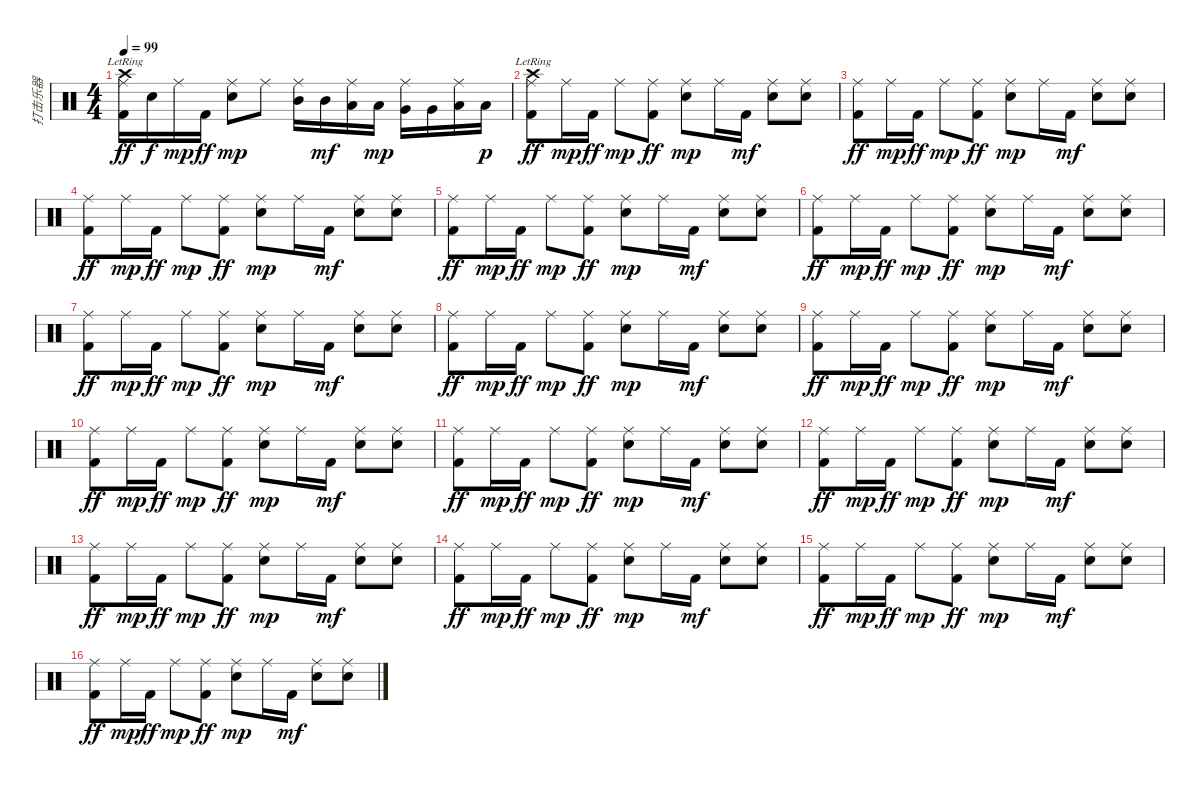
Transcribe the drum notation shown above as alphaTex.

\track ("打击乐器" "打击乐器") {instrument percussion}
\staff {score}
\articulation defaults
\ts (4 4)
\tempo 99
\clef neutral
\ks c
("Ride (middle)" "Crash high (hit)"{lr} "Kick (hit) 2").16{dy ff} "Snare (hit) 2".16{dy f} "Ride (middle)".16{dy mp} "Kick (hit) 2".16{dy ff} ("Ride (middle)" "Snare (hit) 2").8{dy mp} "Ride (middle)".8 ("Ride (middle)" "Mid Tom (hit)").16 "Mid Tom (hit)".16{dy mf} ("Ride (middle)" "Low Tom (hit)").16 "Low Tom (hit)".16{dy mp} ("Ride (middle)" "Very Low Tom (hit)").16 "Very Low Tom (hit)".16 ("Ride (middle)" "Low Floor Tom (hit)").16 "Low Floor Tom (hit)".16{dy p} |
("Ride (middle)" "Crash high (hit)"{lr} "Kick (hit) 2").8{dy ff} "Ride (middle)".16{dy mp} "Kick (hit) 2".16{dy ff} "Ride (middle)".8{dy mp} ("Ride (middle)" "Kick (hit) 2").8{dy ff} ("Ride (middle)" "Snare (hit) 2").8{dy mp} "Ride (middle)".16 "Kick (hit) 2".16{dy mf} ("Ride (middle)" "Snare (hit) 2").8 ("Ride (middle)" "Snare (hit) 2").8 |
("Ride (middle)" "Kick (hit) 2").8{dy ff} "Ride (middle)".16{dy mp} "Kick (hit) 2".16{dy ff} "Ride (middle)".8{dy mp} ("Ride (middle)" "Kick (hit) 2").8{dy ff} ("Ride (middle)" "Snare (hit) 2").8{dy mp} "Ride (middle)".16 "Kick (hit) 2".16{dy mf} ("Ride (middle)" "Snare (hit) 2").8 ("Ride (middle)" "Snare (hit) 2").8 |
("Ride (middle)" "Kick (hit) 2").8{dy ff} "Ride (middle)".16{dy mp} "Kick (hit) 2".16{dy ff} "Ride (middle)".8{dy mp} ("Ride (middle)" "Kick (hit) 2").8{dy ff} ("Ride (middle)" "Snare (hit) 2").8{dy mp} "Ride (middle)".16 "Kick (hit) 2".16{dy mf} ("Ride (middle)" "Snare (hit) 2").8 ("Ride (middle)" "Snare (hit) 2").8 |
("Ride (middle)" "Kick (hit) 2").8{dy ff} "Ride (middle)".16{dy mp} "Kick (hit) 2".16{dy ff} "Ride (middle)".8{dy mp} ("Ride (middle)" "Kick (hit) 2").8{dy ff} ("Ride (middle)" "Snare (hit) 2").8{dy mp} "Ride (middle)".16 "Kick (hit) 2".16{dy mf} ("Ride (middle)" "Snare (hit) 2").8 ("Ride (middle)" "Snare (hit) 2").8 |
("Ride (middle)" "Kick (hit) 2").8{dy ff} "Ride (middle)".16{dy mp} "Kick (hit) 2".16{dy ff} "Ride (middle)".8{dy mp} ("Ride (middle)" "Kick (hit) 2").8{dy ff} ("Ride (middle)" "Snare (hit) 2").8{dy mp} "Ride (middle)".16 "Kick (hit) 2".16{dy mf} ("Ride (middle)" "Snare (hit) 2").8 ("Ride (middle)" "Snare (hit) 2").8 |
("Ride (middle)" "Kick (hit) 2").8{dy ff} "Ride (middle)".16{dy mp} "Kick (hit) 2".16{dy ff} "Ride (middle)".8{dy mp} ("Ride (middle)" "Kick (hit) 2").8{dy ff} ("Ride (middle)" "Snare (hit) 2").8{dy mp} "Ride (middle)".16 "Kick (hit) 2".16{dy mf} ("Ride (middle)" "Snare (hit) 2").8 ("Ride (middle)" "Snare (hit) 2").8 |
("Ride (middle)" "Kick (hit) 2").8{dy ff} "Ride (middle)".16{dy mp} "Kick (hit) 2".16{dy ff} "Ride (middle)".8{dy mp} ("Ride (middle)" "Kick (hit) 2").8{dy ff} ("Ride (middle)" "Snare (hit) 2").8{dy mp} "Ride (middle)".16 "Kick (hit) 2".16{dy mf} ("Ride (middle)" "Snare (hit) 2").8 ("Ride (middle)" "Snare (hit) 2").8 |
("Ride (middle)" "Kick (hit) 2").8{dy ff} "Ride (middle)".16{dy mp} "Kick (hit) 2".16{dy ff} "Ride (middle)".8{dy mp} ("Ride (middle)" "Kick (hit) 2").8{dy ff} ("Ride (middle)" "Snare (hit) 2").8{dy mp} "Ride (middle)".16 "Kick (hit) 2".16{dy mf} ("Ride (middle)" "Snare (hit) 2").8 ("Ride (middle)" "Snare (hit) 2").8 |
("Ride (middle)" "Kick (hit) 2").8{dy ff} "Ride (middle)".16{dy mp} "Kick (hit) 2".16{dy ff} "Ride (middle)".8{dy mp} ("Ride (middle)" "Kick (hit) 2").8{dy ff} ("Ride (middle)" "Snare (hit) 2").8{dy mp} "Ride (middle)".16 "Kick (hit) 2".16{dy mf} ("Ride (middle)" "Snare (hit) 2").8 ("Ride (middle)" "Snare (hit) 2").8 |
("Ride (middle)" "Kick (hit) 2").8{dy ff} "Ride (middle)".16{dy mp} "Kick (hit) 2".16{dy ff} "Ride (middle)".8{dy mp} ("Ride (middle)" "Kick (hit) 2").8{dy ff} ("Ride (middle)" "Snare (hit) 2").8{dy mp} "Ride (middle)".16 "Kick (hit) 2".16{dy mf} ("Ride (middle)" "Snare (hit) 2").8 ("Ride (middle)" "Snare (hit) 2").8 |
("Ride (middle)" "Kick (hit) 2").8{dy ff} "Ride (middle)".16{dy mp} "Kick (hit) 2".16{dy ff} "Ride (middle)".8{dy mp} ("Ride (middle)" "Kick (hit) 2").8{dy ff} ("Ride (middle)" "Snare (hit) 2").8{dy mp} "Ride (middle)".16 "Kick (hit) 2".16{dy mf} ("Ride (middle)" "Snare (hit) 2").8 ("Ride (middle)" "Snare (hit) 2").8 |
("Ride (middle)" "Kick (hit) 2").8{dy ff} "Ride (middle)".16{dy mp} "Kick (hit) 2".16{dy ff} "Ride (middle)".8{dy mp} ("Ride (middle)" "Kick (hit) 2").8{dy ff} ("Ride (middle)" "Snare (hit) 2").8{dy mp} "Ride (middle)".16 "Kick (hit) 2".16{dy mf} ("Ride (middle)" "Snare (hit) 2").8 ("Ride (middle)" "Snare (hit) 2").8 |
("Ride (middle)" "Kick (hit) 2").8{dy ff} "Ride (middle)".16{dy mp} "Kick (hit) 2".16{dy ff} "Ride (middle)".8{dy mp} ("Ride (middle)" "Kick (hit) 2").8{dy ff} ("Ride (middle)" "Snare (hit) 2").8{dy mp} "Ride (middle)".16 "Kick (hit) 2".16{dy mf} ("Ride (middle)" "Snare (hit) 2").8 ("Ride (middle)" "Snare (hit) 2").8 |
("Ride (middle)" "Kick (hit) 2").8{dy ff} "Ride (middle)".16{dy mp} "Kick (hit) 2".16{dy ff} "Ride (middle)".8{dy mp} ("Ride (middle)" "Kick (hit) 2").8{dy ff} ("Ride (middle)" "Snare (hit) 2").8{dy mp} "Ride (middle)".16 "Kick (hit) 2".16{dy mf} ("Ride (middle)" "Snare (hit) 2").8 ("Ride (middle)" "Snare (hit) 2").8 |
("Ride (middle)" "Kick (hit) 2").8{dy ff} "Ride (middle)".16{dy mp} "Kick (hit) 2".16{dy ff} "Ride (middle)".8{dy mp} ("Ride (middle)" "Kick (hit) 2").8{dy ff} ("Ride (middle)" "Snare (hit) 2").8{dy mp} "Ride (middle)".16 "Kick (hit) 2".16{dy mf} ("Ride (middle)" "Snare (hit) 2").8 ("Ride (middle)" "Snare (hit) 2").8
